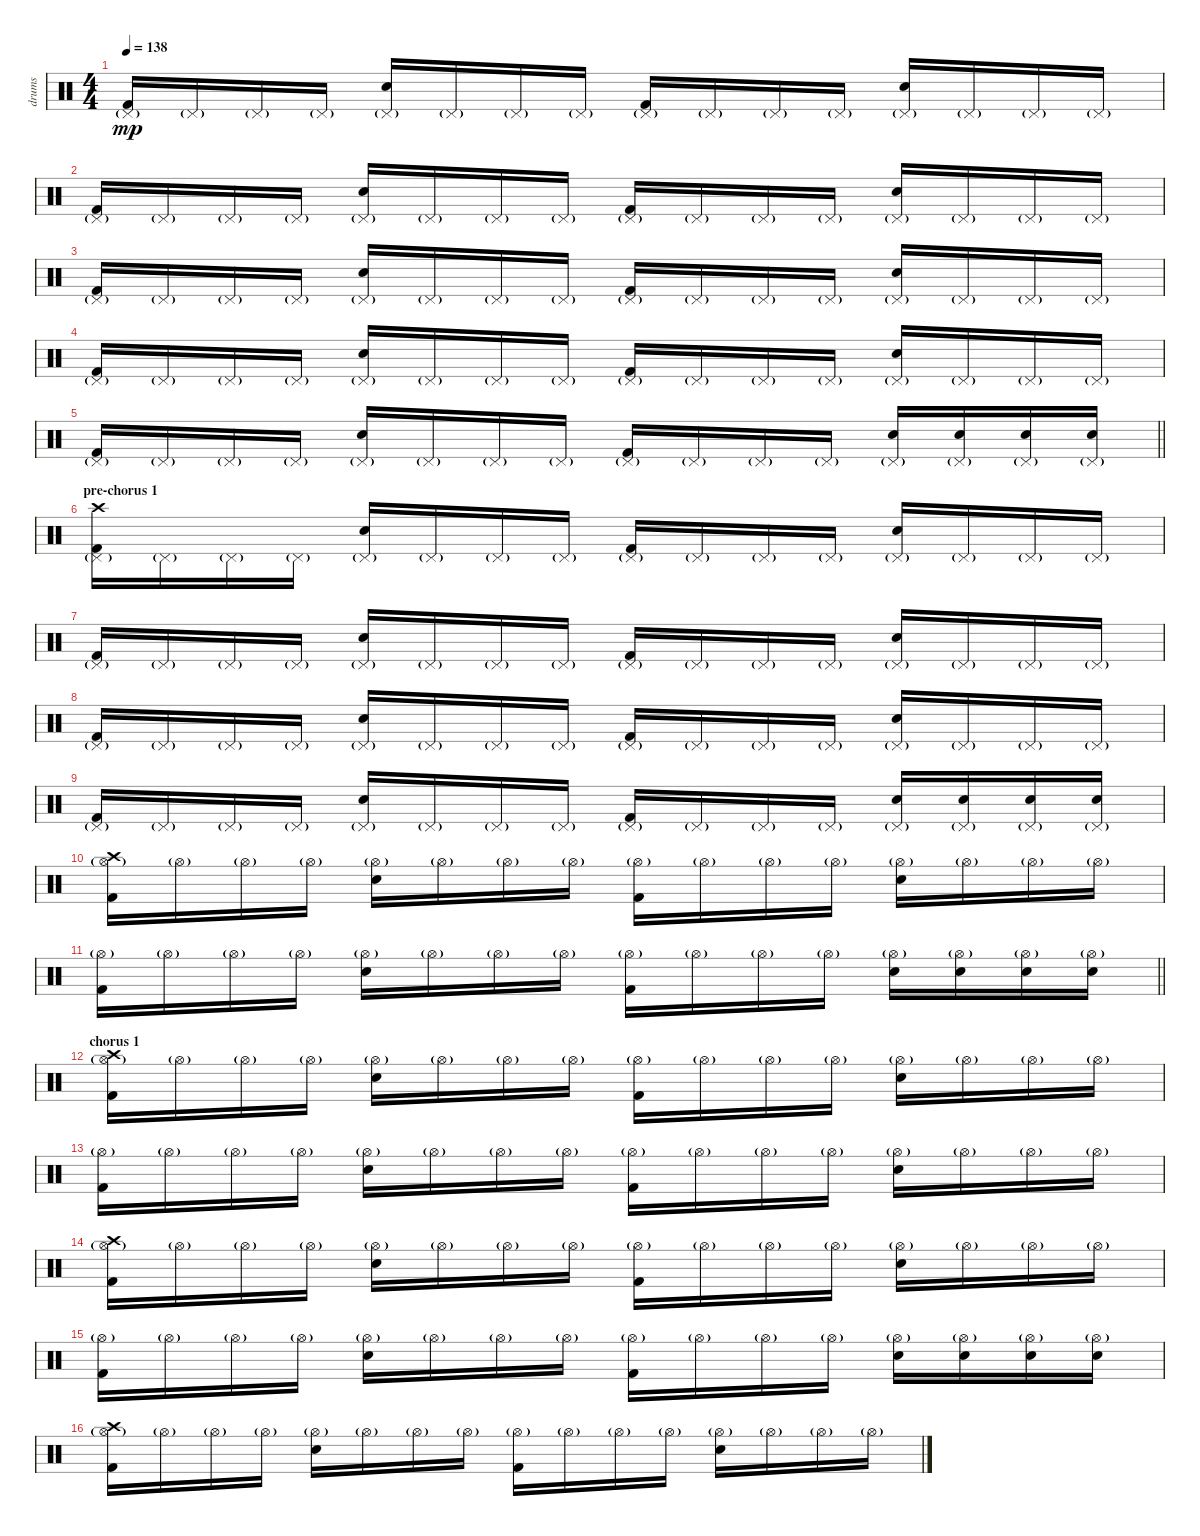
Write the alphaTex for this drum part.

\track ("drums" "drums") {instrument percussion}
\staff {score}
\articulation defaults
\ts (4 4)
\tempo 138
\clef neutral
\ks c
("Kick (hit) 2" "Pedal Hi-Hat (hit)"{g}).16{dy mp} "Pedal Hi-Hat (hit)"{g}.16 "Pedal Hi-Hat (hit)"{g}.16 "Pedal Hi-Hat (hit)"{g}.16 ("Electric Snare (hit)" "Pedal Hi-Hat (hit)"{g}).16 "Pedal Hi-Hat (hit)"{g}.16 "Pedal Hi-Hat (hit)"{g}.16 "Pedal Hi-Hat (hit)"{g}.16 ("Kick (hit) 2" "Pedal Hi-Hat (hit)"{g}).16 "Pedal Hi-Hat (hit)"{g}.16 "Pedal Hi-Hat (hit)"{g}.16 "Pedal Hi-Hat (hit)"{g}.16 ("Electric Snare (hit)" "Pedal Hi-Hat (hit)"{g}).16 "Pedal Hi-Hat (hit)"{g}.16 "Pedal Hi-Hat (hit)"{g}.16 "Pedal Hi-Hat (hit)"{g}.16 |
("Kick (hit) 2" "Pedal Hi-Hat (hit)"{g}).16 "Pedal Hi-Hat (hit)"{g}.16 "Pedal Hi-Hat (hit)"{g}.16 "Pedal Hi-Hat (hit)"{g}.16 ("Electric Snare (hit)" "Pedal Hi-Hat (hit)"{g}).16 "Pedal Hi-Hat (hit)"{g}.16 "Pedal Hi-Hat (hit)"{g}.16 "Pedal Hi-Hat (hit)"{g}.16 ("Kick (hit) 2" "Pedal Hi-Hat (hit)"{g}).16 "Pedal Hi-Hat (hit)"{g}.16 "Pedal Hi-Hat (hit)"{g}.16 "Pedal Hi-Hat (hit)"{g}.16 ("Electric Snare (hit)" "Pedal Hi-Hat (hit)"{g}).16 "Pedal Hi-Hat (hit)"{g}.16 "Pedal Hi-Hat (hit)"{g}.16 "Pedal Hi-Hat (hit)"{g}.16 |
("Kick (hit) 2" "Pedal Hi-Hat (hit)"{g}).16 "Pedal Hi-Hat (hit)"{g}.16 "Pedal Hi-Hat (hit)"{g}.16 "Pedal Hi-Hat (hit)"{g}.16 ("Electric Snare (hit)" "Pedal Hi-Hat (hit)"{g}).16 "Pedal Hi-Hat (hit)"{g}.16 "Pedal Hi-Hat (hit)"{g}.16 "Pedal Hi-Hat (hit)"{g}.16 ("Kick (hit) 2" "Pedal Hi-Hat (hit)"{g}).16 "Pedal Hi-Hat (hit)"{g}.16 "Pedal Hi-Hat (hit)"{g}.16 "Pedal Hi-Hat (hit)"{g}.16 ("Electric Snare (hit)" "Pedal Hi-Hat (hit)"{g}).16 "Pedal Hi-Hat (hit)"{g}.16 "Pedal Hi-Hat (hit)"{g}.16 "Pedal Hi-Hat (hit)"{g}.16 |
("Kick (hit) 2" "Pedal Hi-Hat (hit)"{g}).16 "Pedal Hi-Hat (hit)"{g}.16 "Pedal Hi-Hat (hit)"{g}.16 "Pedal Hi-Hat (hit)"{g}.16 ("Electric Snare (hit)" "Pedal Hi-Hat (hit)"{g}).16 "Pedal Hi-Hat (hit)"{g}.16 "Pedal Hi-Hat (hit)"{g}.16 "Pedal Hi-Hat (hit)"{g}.16 ("Kick (hit) 2" "Pedal Hi-Hat (hit)"{g}).16 "Pedal Hi-Hat (hit)"{g}.16 "Pedal Hi-Hat (hit)"{g}.16 "Pedal Hi-Hat (hit)"{g}.16 ("Electric Snare (hit)" "Pedal Hi-Hat (hit)"{g}).16 "Pedal Hi-Hat (hit)"{g}.16 "Pedal Hi-Hat (hit)"{g}.16 "Pedal Hi-Hat (hit)"{g}.16 |
\barLineRight lightlight
("Kick (hit) 2" "Pedal Hi-Hat (hit)"{g}).16 "Pedal Hi-Hat (hit)"{g}.16 "Pedal Hi-Hat (hit)"{g}.16 "Pedal Hi-Hat (hit)"{g}.16 ("Electric Snare (hit)" "Pedal Hi-Hat (hit)"{g}).16 "Pedal Hi-Hat (hit)"{g}.16 "Pedal Hi-Hat (hit)"{g}.16 "Pedal Hi-Hat (hit)"{g}.16 ("Kick (hit) 2" "Pedal Hi-Hat (hit)"{g}).16 "Pedal Hi-Hat (hit)"{g}.16 "Pedal Hi-Hat (hit)"{g}.16 "Pedal Hi-Hat (hit)"{g}.16 ("Electric Snare (hit)" "Pedal Hi-Hat (hit)"{g}).16 ("Electric Snare (hit)" "Pedal Hi-Hat (hit)"{g}).16 ("Electric Snare (hit)" "Pedal Hi-Hat (hit)"{g}).16 ("Electric Snare (hit)" "Pedal Hi-Hat (hit)"{g}).16 |
\section ("" "pre-chorus 1")
("Kick (hit) 2" "Pedal Hi-Hat (hit)"{g} "Crash high (hit)").16 "Pedal Hi-Hat (hit)"{g}.16 "Pedal Hi-Hat (hit)"{g}.16 "Pedal Hi-Hat (hit)"{g}.16 ("Electric Snare (hit)" "Pedal Hi-Hat (hit)"{g}).16 "Pedal Hi-Hat (hit)"{g}.16 "Pedal Hi-Hat (hit)"{g}.16 "Pedal Hi-Hat (hit)"{g}.16 ("Kick (hit) 2" "Pedal Hi-Hat (hit)"{g}).16 "Pedal Hi-Hat (hit)"{g}.16 "Pedal Hi-Hat (hit)"{g}.16 "Pedal Hi-Hat (hit)"{g}.16 ("Electric Snare (hit)" "Pedal Hi-Hat (hit)"{g}).16 "Pedal Hi-Hat (hit)"{g}.16 "Pedal Hi-Hat (hit)"{g}.16 "Pedal Hi-Hat (hit)"{g}.16 |
("Kick (hit) 2" "Pedal Hi-Hat (hit)"{g}).16 "Pedal Hi-Hat (hit)"{g}.16 "Pedal Hi-Hat (hit)"{g}.16 "Pedal Hi-Hat (hit)"{g}.16 ("Electric Snare (hit)" "Pedal Hi-Hat (hit)"{g}).16 "Pedal Hi-Hat (hit)"{g}.16 "Pedal Hi-Hat (hit)"{g}.16 "Pedal Hi-Hat (hit)"{g}.16 ("Kick (hit) 2" "Pedal Hi-Hat (hit)"{g}).16 "Pedal Hi-Hat (hit)"{g}.16 "Pedal Hi-Hat (hit)"{g}.16 "Pedal Hi-Hat (hit)"{g}.16 ("Electric Snare (hit)" "Pedal Hi-Hat (hit)"{g}).16 "Pedal Hi-Hat (hit)"{g}.16 "Pedal Hi-Hat (hit)"{g}.16 "Pedal Hi-Hat (hit)"{g}.16 |
("Kick (hit) 2" "Pedal Hi-Hat (hit)"{g}).16 "Pedal Hi-Hat (hit)"{g}.16 "Pedal Hi-Hat (hit)"{g}.16 "Pedal Hi-Hat (hit)"{g}.16 ("Electric Snare (hit)" "Pedal Hi-Hat (hit)"{g}).16 "Pedal Hi-Hat (hit)"{g}.16 "Pedal Hi-Hat (hit)"{g}.16 "Pedal Hi-Hat (hit)"{g}.16 ("Kick (hit) 2" "Pedal Hi-Hat (hit)"{g}).16 "Pedal Hi-Hat (hit)"{g}.16 "Pedal Hi-Hat (hit)"{g}.16 "Pedal Hi-Hat (hit)"{g}.16 ("Electric Snare (hit)" "Pedal Hi-Hat (hit)"{g}).16 "Pedal Hi-Hat (hit)"{g}.16 "Pedal Hi-Hat (hit)"{g}.16 "Pedal Hi-Hat (hit)"{g}.16 |
("Kick (hit) 2" "Pedal Hi-Hat (hit)"{g}).16 "Pedal Hi-Hat (hit)"{g}.16 "Pedal Hi-Hat (hit)"{g}.16 "Pedal Hi-Hat (hit)"{g}.16 ("Electric Snare (hit)" "Pedal Hi-Hat (hit)"{g}).16 "Pedal Hi-Hat (hit)"{g}.16 "Pedal Hi-Hat (hit)"{g}.16 "Pedal Hi-Hat (hit)"{g}.16 ("Kick (hit) 2" "Pedal Hi-Hat (hit)"{g}).16 "Pedal Hi-Hat (hit)"{g}.16 "Pedal Hi-Hat (hit)"{g}.16 "Pedal Hi-Hat (hit)"{g}.16 ("Electric Snare (hit)" "Pedal Hi-Hat (hit)"{g}).16 ("Electric Snare (hit)" "Pedal Hi-Hat (hit)"{g}).16 ("Electric Snare (hit)" "Pedal Hi-Hat (hit)"{g}).16 ("Electric Snare (hit)" "Pedal Hi-Hat (hit)"{g}).16 |
("Kick (hit) 2" "Hi-Hat (open)"{g} "Crash high (hit)").16 "Hi-Hat (open)"{g}.16 "Hi-Hat (open)"{g}.16 "Hi-Hat (open)"{g}.16 ("Electric Snare (hit)" "Hi-Hat (open)"{g}).16 "Hi-Hat (open)"{g}.16 "Hi-Hat (open)"{g}.16 "Hi-Hat (open)"{g}.16 ("Kick (hit) 2" "Hi-Hat (open)"{g}).16 "Hi-Hat (open)"{g}.16 "Hi-Hat (open)"{g}.16 "Hi-Hat (open)"{g}.16 ("Electric Snare (hit)" "Hi-Hat (open)"{g}).16 "Hi-Hat (open)"{g}.16 "Hi-Hat (open)"{g}.16 "Hi-Hat (open)"{g}.16 |
\barLineRight lightlight
("Kick (hit) 2" "Hi-Hat (open)"{g}).16 "Hi-Hat (open)"{g}.16 "Hi-Hat (open)"{g}.16 "Hi-Hat (open)"{g}.16 ("Electric Snare (hit)" "Hi-Hat (open)"{g}).16 "Hi-Hat (open)"{g}.16 "Hi-Hat (open)"{g}.16 "Hi-Hat (open)"{g}.16 ("Kick (hit) 2" "Hi-Hat (open)"{g}).16 "Hi-Hat (open)"{g}.16 "Hi-Hat (open)"{g}.16 "Hi-Hat (open)"{g}.16 ("Electric Snare (hit)" "Hi-Hat (open)"{g}).16 ("Electric Snare (hit)" "Hi-Hat (open)"{g}).16 ("Electric Snare (hit)" "Hi-Hat (open)"{g}).16 ("Electric Snare (hit)" "Hi-Hat (open)"{g}).16 |
\section ("" "chorus 1")
("Kick (hit) 2" "Hi-Hat (open)"{g} "Crash high (hit)").16 "Hi-Hat (open)"{g}.16 "Hi-Hat (open)"{g}.16 "Hi-Hat (open)"{g}.16 ("Electric Snare (hit)" "Hi-Hat (open)"{g}).16 "Hi-Hat (open)"{g}.16 "Hi-Hat (open)"{g}.16 "Hi-Hat (open)"{g}.16 ("Kick (hit) 2" "Hi-Hat (open)"{g}).16 "Hi-Hat (open)"{g}.16 "Hi-Hat (open)"{g}.16 "Hi-Hat (open)"{g}.16 ("Electric Snare (hit)" "Hi-Hat (open)"{g}).16 "Hi-Hat (open)"{g}.16 "Hi-Hat (open)"{g}.16 "Hi-Hat (open)"{g}.16 |
("Kick (hit) 2" "Hi-Hat (open)"{g}).16 "Hi-Hat (open)"{g}.16 "Hi-Hat (open)"{g}.16 "Hi-Hat (open)"{g}.16 ("Electric Snare (hit)" "Hi-Hat (open)"{g}).16 "Hi-Hat (open)"{g}.16 "Hi-Hat (open)"{g}.16 "Hi-Hat (open)"{g}.16 ("Kick (hit) 2" "Hi-Hat (open)"{g}).16 "Hi-Hat (open)"{g}.16 "Hi-Hat (open)"{g}.16 "Hi-Hat (open)"{g}.16 ("Electric Snare (hit)" "Hi-Hat (open)"{g}).16 "Hi-Hat (open)"{g}.16 "Hi-Hat (open)"{g}.16 "Hi-Hat (open)"{g}.16 |
("Kick (hit) 2" "Hi-Hat (open)"{g} "Crash high (hit)").16 "Hi-Hat (open)"{g}.16 "Hi-Hat (open)"{g}.16 "Hi-Hat (open)"{g}.16 ("Electric Snare (hit)" "Hi-Hat (open)"{g}).16 "Hi-Hat (open)"{g}.16 "Hi-Hat (open)"{g}.16 "Hi-Hat (open)"{g}.16 ("Kick (hit) 2" "Hi-Hat (open)"{g}).16 "Hi-Hat (open)"{g}.16 "Hi-Hat (open)"{g}.16 "Hi-Hat (open)"{g}.16 ("Electric Snare (hit)" "Hi-Hat (open)"{g}).16 "Hi-Hat (open)"{g}.16 "Hi-Hat (open)"{g}.16 "Hi-Hat (open)"{g}.16 |
("Kick (hit) 2" "Hi-Hat (open)"{g}).16 "Hi-Hat (open)"{g}.16 "Hi-Hat (open)"{g}.16 "Hi-Hat (open)"{g}.16 ("Electric Snare (hit)" "Hi-Hat (open)"{g}).16 "Hi-Hat (open)"{g}.16 "Hi-Hat (open)"{g}.16 "Hi-Hat (open)"{g}.16 ("Kick (hit) 2" "Hi-Hat (open)"{g}).16 "Hi-Hat (open)"{g}.16 "Hi-Hat (open)"{g}.16 "Hi-Hat (open)"{g}.16 ("Electric Snare (hit)" "Hi-Hat (open)"{g}).16 ("Electric Snare (hit)" "Hi-Hat (open)"{g}).16 ("Electric Snare (hit)" "Hi-Hat (open)"{g}).16 ("Electric Snare (hit)" "Hi-Hat (open)"{g}).16 |
("Kick (hit) 2" "Hi-Hat (open)"{g} "Crash high (hit)").16 "Hi-Hat (open)"{g}.16 "Hi-Hat (open)"{g}.16 "Hi-Hat (open)"{g}.16 ("Electric Snare (hit)" "Hi-Hat (open)"{g}).16 "Hi-Hat (open)"{g}.16 "Hi-Hat (open)"{g}.16 "Hi-Hat (open)"{g}.16 ("Kick (hit) 2" "Hi-Hat (open)"{g}).16 "Hi-Hat (open)"{g}.16 "Hi-Hat (open)"{g}.16 "Hi-Hat (open)"{g}.16 ("Electric Snare (hit)" "Hi-Hat (open)"{g}).16 "Hi-Hat (open)"{g}.16 "Hi-Hat (open)"{g}.16 "Hi-Hat (open)"{g}.16
